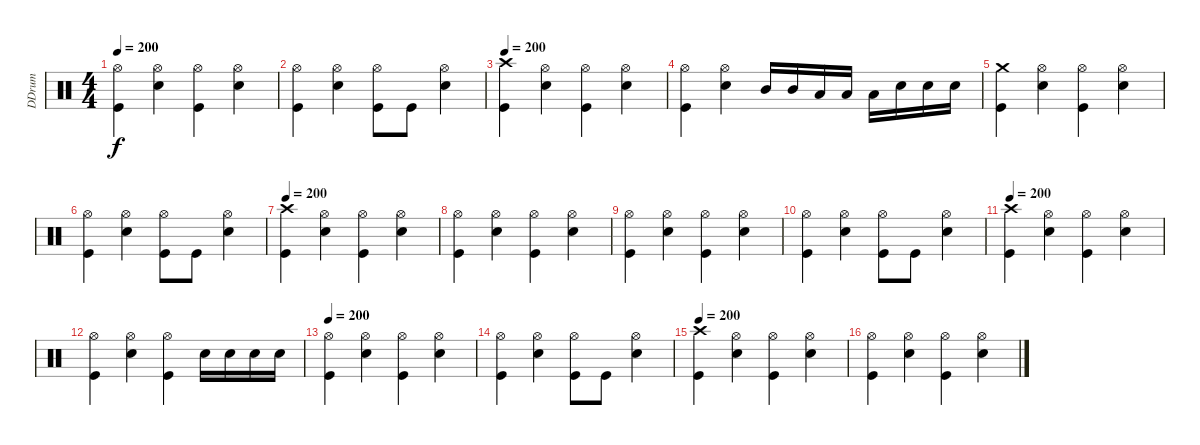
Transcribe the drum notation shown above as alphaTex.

\track ("DDrum" "DDrum") {instrument percussion}
\staff {score}
\articulation defaults
\ts (4 4)
\tempo 200
\clef neutral
\ks c
("Hi-Hat (open)" "Kick (hit)").4{dy f} ("Hi-Hat (open)" "Electric Snare (hit)").4 ("Hi-Hat (open)" "Kick (hit)").4 ("Hi-Hat (open)" "Electric Snare (hit)").4 |
("Hi-Hat (open)" "Kick (hit)").4 ("Hi-Hat (open)" "Electric Snare (hit)").4 ("Hi-Hat (open)" "Kick (hit)").8 "Kick (hit)".8 ("Hi-Hat (open)" "Electric Snare (hit)").4 |
\tempo 200
("Crash high (hit)" "Kick (hit)").4 ("Hi-Hat (open)" "Electric Snare (hit)").4 ("Hi-Hat (open)" "Kick (hit)").4 ("Hi-Hat (open)" "Electric Snare (hit)").4 |
("Hi-Hat (open)" "Kick (hit)").4 ("Hi-Hat (open)" "Electric Snare (hit)").4 "Mid Tom (hit)".16 "Mid Tom (hit)".16 "Low Tom (hit)".16 "Low Tom (hit)".16 "Low Tom (hit)".16 "Electric Snare (hit)".16 "Electric Snare (hit)".16 "Electric Snare (hit)".16 |
("Crash medium (hit)" "Kick (hit)").4 ("Hi-Hat (open)" "Electric Snare (hit)").4 ("Hi-Hat (open)" "Kick (hit)").4 ("Hi-Hat (open)" "Electric Snare (hit)").4 |
("Hi-Hat (open)" "Kick (hit)").4 ("Hi-Hat (open)" "Electric Snare (hit)").4 ("Hi-Hat (open)" "Kick (hit)").8 "Kick (hit)".8 ("Hi-Hat (open)" "Electric Snare (hit)").4 |
\tempo 200
("Crash high (hit)" "Kick (hit)").4 ("Hi-Hat (open)" "Electric Snare (hit)").4 ("Hi-Hat (open)" "Kick (hit)").4 ("Hi-Hat (open)" "Electric Snare (hit)").4 |
("Hi-Hat (open)" "Kick (hit)").4 ("Hi-Hat (open)" "Electric Snare (hit)").4 ("Hi-Hat (open)" "Kick (hit)").4 ("Hi-Hat (open)" "Electric Snare (hit)").4 |
("Hi-Hat (open)" "Kick (hit)").4 ("Hi-Hat (open)" "Electric Snare (hit)").4 ("Hi-Hat (open)" "Kick (hit)").4 ("Hi-Hat (open)" "Electric Snare (hit)").4 |
("Hi-Hat (open)" "Kick (hit)").4 ("Hi-Hat (open)" "Electric Snare (hit)").4 ("Hi-Hat (open)" "Kick (hit)").8 "Kick (hit)".8 ("Hi-Hat (open)" "Electric Snare (hit)").4 |
\tempo 200
("Crash high (hit)" "Kick (hit)").4 ("Hi-Hat (open)" "Electric Snare (hit)").4 ("Hi-Hat (open)" "Kick (hit)").4 ("Hi-Hat (open)" "Electric Snare (hit)").4 |
("Hi-Hat (open)" "Kick (hit)").4 ("Hi-Hat (open)" "Electric Snare (hit)").4 ("Hi-Hat (open)" "Kick (hit)").4 "Electric Snare (hit)".16 "Electric Snare (hit)".16 "Electric Snare (hit)".16 "Electric Snare (hit)".16 |
\tempo 200
("Hi-Hat (open)" "Kick (hit)").4 ("Hi-Hat (open)" "Electric Snare (hit)").4 ("Hi-Hat (open)" "Kick (hit)").4 ("Hi-Hat (open)" "Electric Snare (hit)").4 |
("Hi-Hat (open)" "Kick (hit)").4 ("Hi-Hat (open)" "Electric Snare (hit)").4 ("Hi-Hat (open)" "Kick (hit)").8 "Kick (hit)".8 ("Hi-Hat (open)" "Electric Snare (hit)").4 |
\tempo 200
("Crash high (hit)" "Kick (hit)").4 ("Hi-Hat (open)" "Electric Snare (hit)").4 ("Hi-Hat (open)" "Kick (hit)").4 ("Hi-Hat (open)" "Electric Snare (hit)").4 |
("Hi-Hat (open)" "Kick (hit)").4 ("Hi-Hat (open)" "Electric Snare (hit)").4 ("Hi-Hat (open)" "Kick (hit)").4 ("Hi-Hat (open)" "Electric Snare (hit)").4
